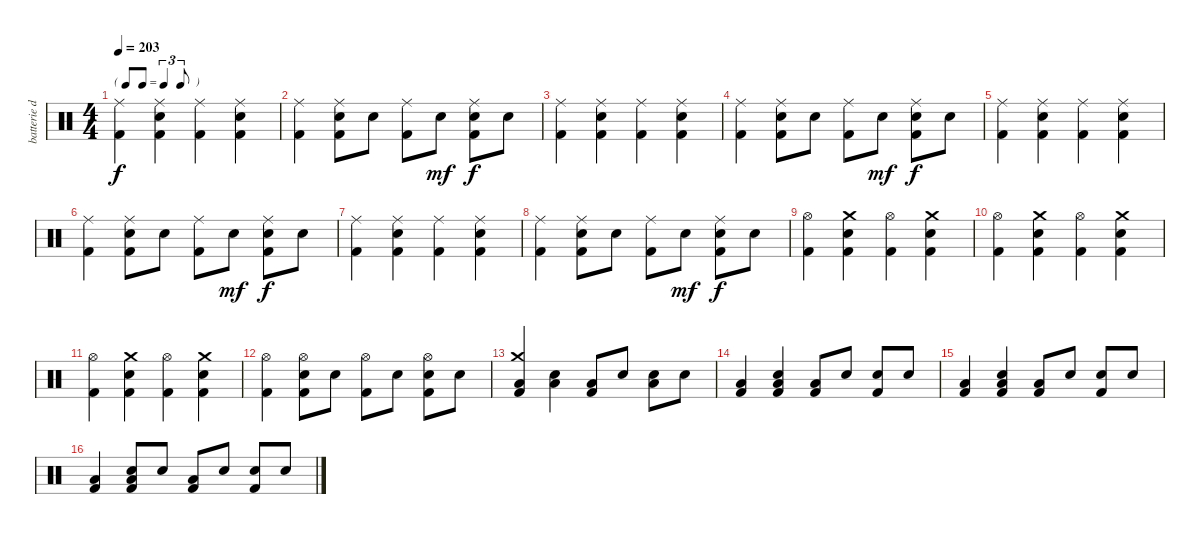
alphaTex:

\track ("batterie dub" "batterie d") {instrument percussion}
\staff {score}
\articulation defaults
\ts (4 4)
\tf triplet8th
\tempo 203
\clef neutral
\ks c
("Ride (middle)" "Kick (hit) 2").4{dy f} ("Ride (middle)" "Electric Snare (hit)" "Kick (hit) 2").4 ("Ride (middle)" "Kick (hit) 2").4 ("Ride (middle)" "Electric Snare (hit)" "Kick (hit) 2").4 |
("Ride (middle)" "Kick (hit) 2").4 ("Ride (middle)" "Electric Snare (hit)" "Kick (hit) 2").8 "Electric Snare (hit)".8 ("Ride (middle)" "Kick (hit) 2").8 "Electric Snare (hit)".8{dy mf} ("Ride (middle)" "Electric Snare (hit)" "Kick (hit) 2").8{dy f} "Electric Snare (hit)".8 |
("Ride (middle)" "Kick (hit) 2").4 ("Ride (middle)" "Electric Snare (hit)" "Kick (hit) 2").4 ("Ride (middle)" "Kick (hit) 2").4 ("Ride (middle)" "Electric Snare (hit)" "Kick (hit) 2").4 |
("Ride (middle)" "Kick (hit) 2").4 ("Ride (middle)" "Electric Snare (hit)" "Kick (hit) 2").8 "Electric Snare (hit)".8 ("Ride (middle)" "Kick (hit) 2").8 "Electric Snare (hit)".8{dy mf} ("Ride (middle)" "Electric Snare (hit)" "Kick (hit) 2").8{dy f} "Electric Snare (hit)".8 |
("Ride (middle)" "Kick (hit) 2").4 ("Ride (middle)" "Electric Snare (hit)" "Kick (hit) 2").4 ("Ride (middle)" "Kick (hit) 2").4 ("Ride (middle)" "Electric Snare (hit)" "Kick (hit) 2").4 |
("Ride (middle)" "Kick (hit) 2").4 ("Ride (middle)" "Electric Snare (hit)" "Kick (hit) 2").8 "Electric Snare (hit)".8 ("Ride (middle)" "Kick (hit) 2").8 "Electric Snare (hit)".8{dy mf} ("Ride (middle)" "Electric Snare (hit)" "Kick (hit) 2").8{dy f} "Electric Snare (hit)".8 |
("Ride (middle)" "Kick (hit) 2").4 ("Ride (middle)" "Electric Snare (hit)" "Kick (hit) 2").4 ("Ride (middle)" "Kick (hit) 2").4 ("Ride (middle)" "Electric Snare (hit)" "Kick (hit) 2").4 |
("Ride (middle)" "Kick (hit) 2").4 ("Ride (middle)" "Electric Snare (hit)" "Kick (hit) 2").8 "Electric Snare (hit)".8 ("Ride (middle)" "Kick (hit) 2").8 "Electric Snare (hit)".8{dy mf} ("Ride (middle)" "Electric Snare (hit)" "Kick (hit) 2").8{dy f} "Electric Snare (hit)".8 |
("Hi-Hat (open)" "Kick (hit) 2").4 ("Crash medium (hit)" "Electric Snare (hit)" "Kick (hit) 2").4 ("Hi-Hat (open)" "Kick (hit) 2").4 ("Crash medium (hit)" "Electric Snare (hit)" "Kick (hit) 2").4 |
("Hi-Hat (open)" "Kick (hit) 2").4 ("Crash medium (hit)" "Electric Snare (hit)" "Kick (hit) 2").4 ("Hi-Hat (open)" "Kick (hit) 2").4 ("Crash medium (hit)" "Electric Snare (hit)" "Kick (hit) 2").4 |
("Hi-Hat (open)" "Kick (hit) 2").4 ("Crash medium (hit)" "Electric Snare (hit)" "Kick (hit) 2").4 ("Hi-Hat (open)" "Kick (hit) 2").4 ("Crash medium (hit)" "Electric Snare (hit)" "Kick (hit) 2").4 |
("Hi-Hat (open)" "Kick (hit) 2").4 ("Hi-Hat (open)" "Electric Snare (hit)" "Kick (hit) 2").8 "Electric Snare (hit)".8 ("Hi-Hat (open)" "Kick (hit) 2").8 "Electric Snare (hit)".8 ("Hi-Hat (open)" "Electric Snare (hit)" "Kick (hit) 2").8 "Electric Snare (hit)".8 |
("Crash medium (hit)" "Low Tom (hit)" "Kick (hit) 2").4 ("Low Tom (hit)" "Electric Snare (hit)").4 ("Low Tom (hit)" "Kick (hit) 2").8 "Electric Snare (hit)".8 ("Low Tom (hit)" "Electric Snare (hit)").8 "Electric Snare (hit)".8 |
("Low Tom (hit)" "Kick (hit) 2").4 ("Low Tom (hit)" "Electric Snare (hit)" "Kick (hit) 2").4 ("Low Tom (hit)" "Kick (hit) 2").8 "Electric Snare (hit)".8 ("Electric Snare (hit)" "Kick (hit) 2").8 "Electric Snare (hit)".8 |
("Low Tom (hit)" "Kick (hit) 2").4 ("Low Tom (hit)" "Electric Snare (hit)" "Kick (hit) 2").4 ("Low Tom (hit)" "Kick (hit) 2").8 "Electric Snare (hit)".8 ("Electric Snare (hit)" "Kick (hit) 2").8 "Electric Snare (hit)".8 |
("Low Tom (hit)" "Kick (hit) 2").4 ("Low Tom (hit)" "Electric Snare (hit)" "Kick (hit) 2").8 "Electric Snare (hit)".8 ("Low Tom (hit)" "Kick (hit) 2").8 "Electric Snare (hit)".8 ("Electric Snare (hit)" "Kick (hit) 2").8 "Electric Snare (hit)".8
